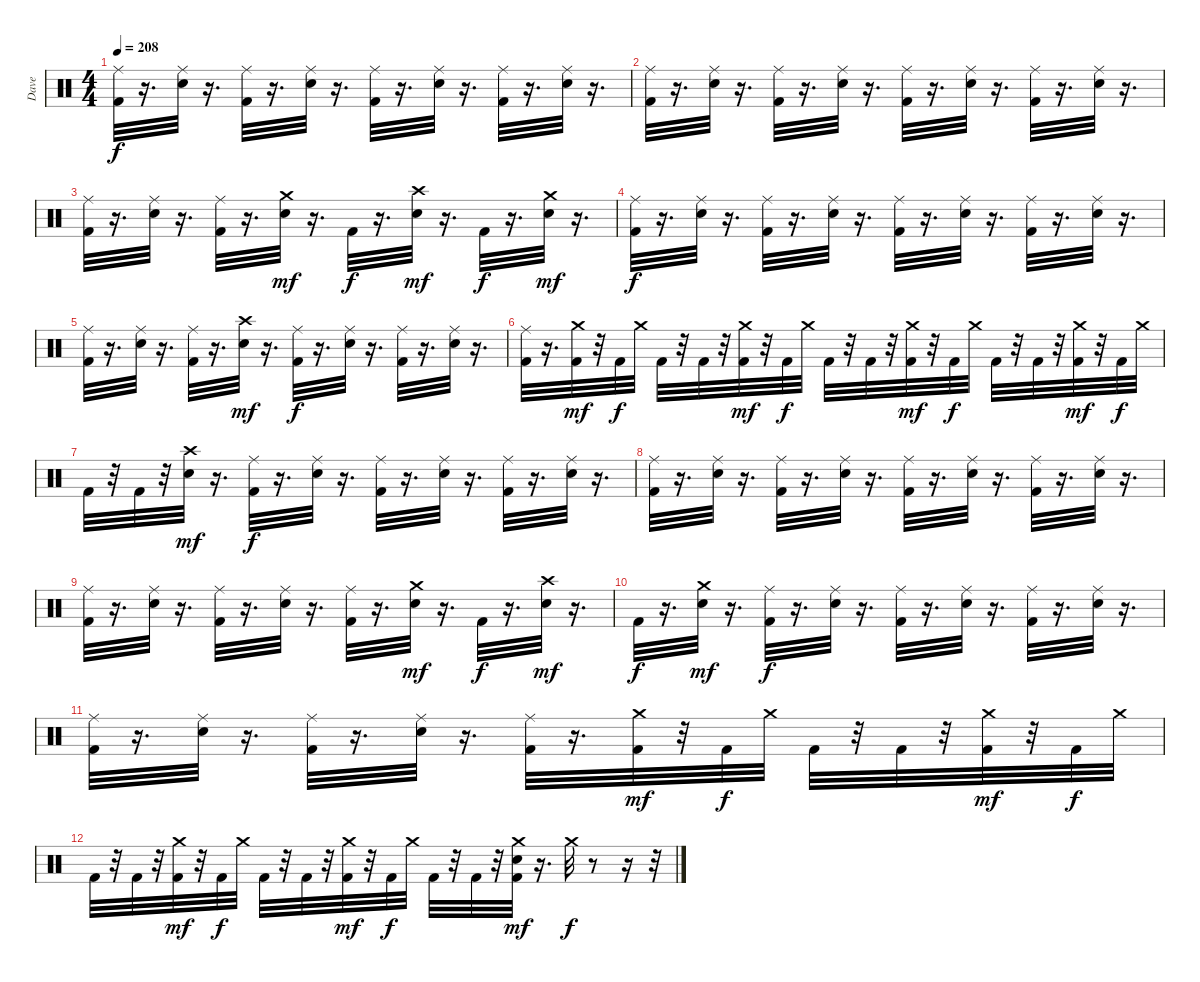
\track ("Dave" "Dave") {instrument percussion}
\staff {score}
\articulation defaults
\ts (4 4)
\tempo 208
\clef neutral
\ks c
("Kick (hit) 2" "Ride (middle)").32{dy f} r.16{d} ("Snare (hit) 2" "Ride (middle)").32 r.16{d} ("Kick (hit) 2" "Ride (middle)").32 r.16{d} ("Snare (hit) 2" "Ride (middle)").32 r.16{d} ("Kick (hit) 2" "Ride (middle)").32 r.16{d} ("Snare (hit) 2" "Ride (middle)").32 r.16{d} ("Kick (hit) 2" "Ride (middle)").32 r.16{d} ("Snare (hit) 2" "Ride (middle)").32 r.16{d} |
("Kick (hit) 2" "Ride (middle)").32 r.16{d} ("Snare (hit) 2" "Ride (middle)").32 r.16{d} ("Kick (hit) 2" "Ride (middle)").32 r.16{d} ("Snare (hit) 2" "Ride (middle)").32 r.16{d} ("Kick (hit) 2" "Ride (middle)").32 r.16{d} ("Snare (hit) 2" "Ride (middle)").32 r.16{d} ("Kick (hit) 2" "Ride (middle)").32 r.16{d} ("Snare (hit) 2" "Ride (middle)").32 r.16{d} |
("Kick (hit) 2" "Ride (middle)").32 r.16{d} ("Snare (hit) 2" "Ride (middle)").32 r.16{d} ("Kick (hit) 2" "Ride (middle)").32 r.16{d} ("Snare (hit) 2" "Crash medium (hit)").32{dy mf} r.16{d} "Kick (hit) 2".32{dy f} r.16{d} ("Snare (hit) 2" "Crash high (hit)").32{dy mf} r.16{d} "Kick (hit) 2".32{dy f} r.16{d} ("Snare (hit) 2" "Crash medium (hit)").32{dy mf} r.16{d} |
("Kick (hit) 2" "Ride (middle)").32{dy f} r.16{d} ("Snare (hit) 2" "Ride (middle)").32 r.16{d} ("Kick (hit) 2" "Ride (middle)").32 r.16{d} ("Snare (hit) 2" "Ride (middle)").32 r.16{d} ("Kick (hit) 2" "Ride (middle)").32 r.16{d} ("Snare (hit) 2" "Ride (middle)").32 r.16{d} ("Kick (hit) 2" "Ride (middle)").32 r.16{d} ("Snare (hit) 2" "Ride (middle)").32 r.16{d} |
("Kick (hit) 2" "Ride (middle)").32 r.16{d} ("Snare (hit) 2" "Ride (middle)").32 r.16{d} ("Kick (hit) 2" "Ride (middle)").32 r.16{d} ("Snare (hit) 2" "Crash high (hit)").32{dy mf} r.16{d} ("Kick (hit) 2" "Ride (middle)").32{dy f} r.16{d} ("Snare (hit) 2" "Ride (middle)").32 r.16{d} ("Kick (hit) 2" "Ride (middle)").32 r.16{d} ("Snare (hit) 2" "Ride (middle)").32 r.16{d} |
("Kick (hit) 2" "Ride (middle)").32 r.16{d} ("Kick (hit) 2" "Crash medium (hit)").32{dy mf} r.32 "Kick (hit) 2".32{dy f} "Crash medium (hit)".32 "Kick (hit) 2".32 r.32 "Kick (hit) 2".32 r.32 ("Kick (hit) 2" "Crash medium (hit)").32{dy mf} r.32 "Kick (hit) 2".32{dy f} "Crash medium (hit)".32 "Kick (hit) 2".32 r.32 "Kick (hit) 2".32 r.32 ("Kick (hit) 2" "Crash medium (hit)").32{dy mf} r.32 "Kick (hit) 2".32{dy f} "Crash medium (hit)".32 "Kick (hit) 2".32 r.32 "Kick (hit) 2".32 r.32 ("Kick (hit) 2" "Crash medium (hit)").32{dy mf} r.32 "Kick (hit) 2".32{dy f} "Crash medium (hit)".32 |
"Kick (hit) 2".32 r.32 "Kick (hit) 2".32 r.32 ("Snare (hit) 2" "Crash high (hit)").32{dy mf} r.16{d} ("Kick (hit) 2" "Ride (middle)").32{dy f} r.16{d} ("Snare (hit) 2" "Ride (middle)").32 r.16{d} ("Kick (hit) 2" "Ride (middle)").32 r.16{d} ("Snare (hit) 2" "Ride (middle)").32 r.16{d} ("Kick (hit) 2" "Ride (middle)").32 r.16{d} ("Snare (hit) 2" "Ride (middle)").32 r.16{d} |
("Kick (hit) 2" "Ride (middle)").32 r.16{d} ("Snare (hit) 2" "Ride (middle)").32 r.16{d} ("Kick (hit) 2" "Ride (middle)").32 r.16{d} ("Snare (hit) 2" "Ride (middle)").32 r.16{d} ("Kick (hit) 2" "Ride (middle)").32 r.16{d} ("Snare (hit) 2" "Ride (middle)").32 r.16{d} ("Kick (hit) 2" "Ride (middle)").32 r.16{d} ("Snare (hit) 2" "Ride (middle)").32 r.16{d} |
("Kick (hit) 2" "Ride (middle)").32 r.16{d} ("Snare (hit) 2" "Ride (middle)").32 r.16{d} ("Kick (hit) 2" "Ride (middle)").32 r.16{d} ("Snare (hit) 2" "Ride (middle)").32 r.16{d} ("Kick (hit) 2" "Ride (middle)").32 r.16{d} ("Snare (hit) 2" "Crash medium (hit)").32{dy mf} r.16{d} "Kick (hit) 2".32{dy f} r.16{d} ("Snare (hit) 2" "Crash high (hit)").32{dy mf} r.16{d} |
"Kick (hit) 2".32{dy f} r.16{d} ("Snare (hit) 2" "Crash medium (hit)").32{dy mf} r.16{d} ("Kick (hit) 2" "Ride (middle)").32{dy f} r.16{d} ("Snare (hit) 2" "Ride (middle)").32 r.16{d} ("Kick (hit) 2" "Ride (middle)").32 r.16{d} ("Snare (hit) 2" "Ride (middle)").32 r.16{d} ("Kick (hit) 2" "Ride (middle)").32 r.16{d} ("Snare (hit) 2" "Ride (middle)").32 r.16{d} |
("Kick (hit) 2" "Ride (middle)").32 r.16{d} ("Snare (hit) 2" "Ride (middle)").32 r.16{d} ("Kick (hit) 2" "Ride (middle)").32 r.16{d} ("Snare (hit) 2" "Ride (middle)").32 r.16{d} ("Kick (hit) 2" "Ride (middle)").32 r.16{d} ("Kick (hit) 2" "Crash medium (hit)").32{dy mf} r.32 "Kick (hit) 2".32{dy f} "Crash medium (hit)".32 "Kick (hit) 2".32 r.32 "Kick (hit) 2".32 r.32 ("Kick (hit) 2" "Crash medium (hit)").32{dy mf} r.32 "Kick (hit) 2".32{dy f} "Crash medium (hit)".32 |
"Kick (hit) 2".32 r.32 "Kick (hit) 2".32 r.32 ("Kick (hit) 2" "Crash medium (hit)").32{dy mf} r.32 "Kick (hit) 2".32{dy f} "Crash medium (hit)".32 "Kick (hit) 2".32 r.32 "Kick (hit) 2".32 r.32 ("Kick (hit) 2" "Crash medium (hit)").32{dy mf} r.32 "Kick (hit) 2".32{dy f} "Crash medium (hit)".32 "Kick (hit) 2".32 r.32 "Kick (hit) 2".32 r.32 ("Kick (hit) 2" "Snare (hit) 2" "Crash medium (hit)").32{dy mf} r.16{d} "Crash medium (hit)".32{dy f} r.8 r.16 r.32
